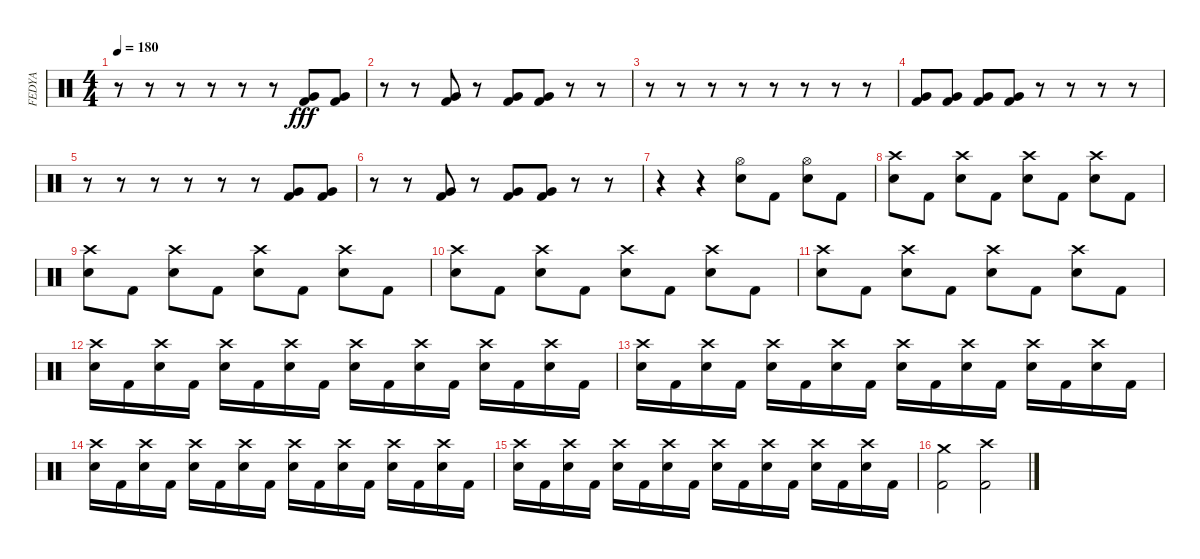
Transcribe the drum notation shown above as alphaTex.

\track ("FEDYA" "FEDYA") {instrument percussion}
\staff {score}
\articulation defaults
\ts (4 4)
\tempo 180
\clef neutral
\ks c
r.8{dy fff} r.8 r.8 r.8 r.8 r.8 ("Very Low Tom (hit)" "Kick (hit) 2").8 ("Very Low Tom (hit)" "Kick (hit) 2").8 |
r.8 r.8 ("Very Low Tom (hit)" "Kick (hit) 2").8 r.8 ("Very Low Tom (hit)" "Kick (hit) 2").8 ("Very Low Tom (hit)" "Kick (hit) 2").8 r.8 r.8 |
r.8 r.8 r.8 r.8 r.8 r.8 r.8 r.8 |
("Very Low Tom (hit)" "Kick (hit) 2").8 ("Very Low Tom (hit)" "Kick (hit) 2").8 ("Very Low Tom (hit)" "Kick (hit) 2").8 ("Very Low Tom (hit)" "Kick (hit) 2").8 r.8 r.8 r.8 r.8 |
r.8 r.8 r.8 r.8 r.8 r.8 ("Very Low Tom (hit)" "Kick (hit) 2").8 ("Very Low Tom (hit)" "Kick (hit) 2").8 |
r.8 r.8 ("Very Low Tom (hit)" "Kick (hit) 2").8 r.8 ("Very Low Tom (hit)" "Kick (hit) 2").8 ("Very Low Tom (hit)" "Kick (hit) 2").8 r.8 r.8 |
r.4 r.4 ("Hi-Hat (open)" "Snare (hit) 2").8 "Kick (hit) 2".8 ("Hi-Hat (open)" "Snare (hit) 2").8 "Kick (hit) 2".8 |
("Crash high (hit)" "Snare (hit) 2").8 "Kick (hit) 2".8 ("Crash high (hit)" "Snare (hit) 2").8 "Kick (hit) 2".8 ("Crash high (hit)" "Snare (hit) 2").8 "Kick (hit) 2".8 ("Crash high (hit)" "Snare (hit) 2").8 "Kick (hit) 2".8 |
("Crash high (hit)" "Snare (hit) 2").8 "Kick (hit) 2".8 ("Crash high (hit)" "Snare (hit) 2").8 "Kick (hit) 2".8 ("Crash high (hit)" "Snare (hit) 2").8 "Kick (hit) 2".8 ("Crash high (hit)" "Snare (hit) 2").8 "Kick (hit) 2".8 |
("Crash high (hit)" "Snare (hit) 2").8 "Kick (hit) 2".8 ("Crash high (hit)" "Snare (hit) 2").8 "Kick (hit) 2".8 ("Crash high (hit)" "Snare (hit) 2").8 "Kick (hit) 2".8 ("Crash high (hit)" "Snare (hit) 2").8 "Kick (hit) 2".8 |
("Crash high (hit)" "Snare (hit) 2").8 "Kick (hit) 2".8 ("Crash high (hit)" "Snare (hit) 2").8 "Kick (hit) 2".8 ("Crash high (hit)" "Snare (hit) 2").8 "Kick (hit) 2".8 ("Crash high (hit)" "Snare (hit) 2").8 "Kick (hit) 2".8 |
("Crash high (hit)" "Snare (hit) 2").16 "Kick (hit) 2".16 ("Crash high (hit)" "Snare (hit) 2").16 "Kick (hit) 2".16 ("Crash high (hit)" "Snare (hit) 2").16 "Kick (hit) 2".16 ("Crash high (hit)" "Snare (hit) 2").16 "Kick (hit) 2".16 ("Crash high (hit)" "Snare (hit) 2").16 "Kick (hit) 2".16 ("Crash high (hit)" "Snare (hit) 2").16 "Kick (hit) 2".16 ("Crash high (hit)" "Snare (hit) 2").16 "Kick (hit) 2".16 ("Crash high (hit)" "Snare (hit) 2").16 "Kick (hit) 2".16 |
("Crash high (hit)" "Snare (hit) 2").16 "Kick (hit) 2".16 ("Crash high (hit)" "Snare (hit) 2").16 "Kick (hit) 2".16 ("Crash high (hit)" "Snare (hit) 2").16 "Kick (hit) 2".16 ("Crash high (hit)" "Snare (hit) 2").16 "Kick (hit) 2".16 ("Crash high (hit)" "Snare (hit) 2").16 "Kick (hit) 2".16 ("Crash high (hit)" "Snare (hit) 2").16 "Kick (hit) 2".16 ("Crash high (hit)" "Snare (hit) 2").16 "Kick (hit) 2".16 ("Crash high (hit)" "Snare (hit) 2").16 "Kick (hit) 2".16 |
("Crash high (hit)" "Snare (hit) 2").16 "Kick (hit) 2".16 ("Crash high (hit)" "Snare (hit) 2").16 "Kick (hit) 2".16 ("Crash high (hit)" "Snare (hit) 2").16 "Kick (hit) 2".16 ("Crash high (hit)" "Snare (hit) 2").16 "Kick (hit) 2".16 ("Crash high (hit)" "Snare (hit) 2").16 "Kick (hit) 2".16 ("Crash high (hit)" "Snare (hit) 2").16 "Kick (hit) 2".16 ("Crash high (hit)" "Snare (hit) 2").16 "Kick (hit) 2".16 ("Crash high (hit)" "Snare (hit) 2").16 "Kick (hit) 2".16 |
("Crash high (hit)" "Snare (hit) 2").16 "Kick (hit) 2".16 ("Crash high (hit)" "Snare (hit) 2").16 "Kick (hit) 2".16 ("Crash high (hit)" "Snare (hit) 2").16 "Kick (hit) 2".16 ("Crash high (hit)" "Snare (hit) 2").16 "Kick (hit) 2".16 ("Crash high (hit)" "Snare (hit) 2").16 "Kick (hit) 2".16 ("Crash high (hit)" "Snare (hit) 2").16 "Kick (hit) 2".16 ("Crash high (hit)" "Snare (hit) 2").16 "Kick (hit) 2".16 ("Crash high (hit)" "Snare (hit) 2").16 "Kick (hit) 2".16 |
("Crash medium (hit)" "Kick (hit) 2").2 ("Crash high (hit)" "Kick (hit) 2").2
